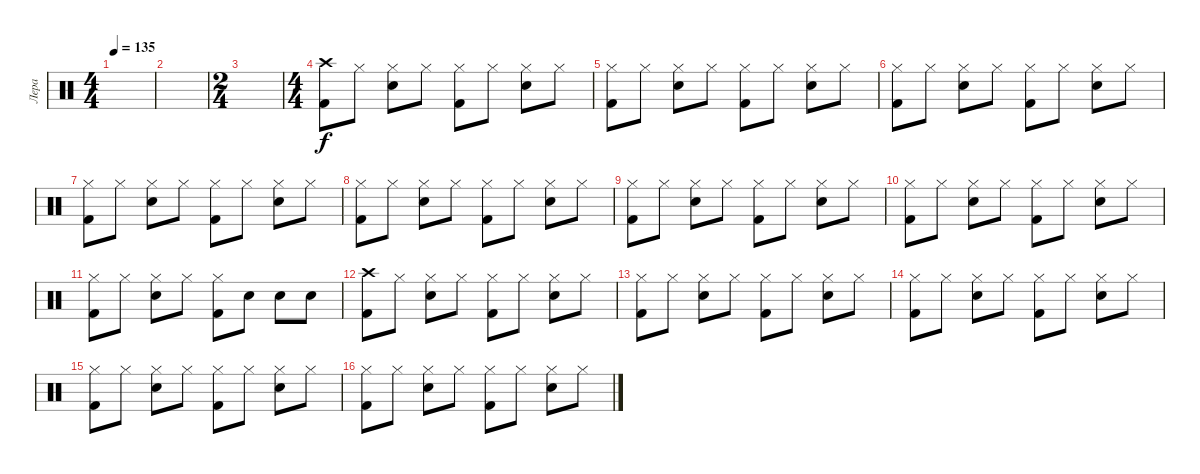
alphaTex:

\track ("Лера" "Лера") {instrument percussion}
\staff {score}
\articulation defaults
\ts (4 4)
\tempo 135
\clef neutral
\ks c
|
|
\ts (2 4)
|
\ts (4 4)
("Crash high (hit)" "Kick (hit) 2").8 "Hi-Hat (closed)".8 ("Hi-Hat (closed)" "Electric Snare (hit)").8 "Hi-Hat (closed)".8 ("Hi-Hat (closed)" "Kick (hit) 2").8 "Hi-Hat (closed)".8 ("Hi-Hat (closed)" "Electric Snare (hit)").8 "Hi-Hat (closed)".8 |
("Hi-Hat (closed)" "Kick (hit) 2").8 "Hi-Hat (closed)".8 ("Hi-Hat (closed)" "Electric Snare (hit)").8 "Hi-Hat (closed)".8 ("Hi-Hat (closed)" "Kick (hit) 2").8 "Hi-Hat (closed)".8 ("Hi-Hat (closed)" "Electric Snare (hit)").8 "Hi-Hat (closed)".8 |
("Hi-Hat (closed)" "Kick (hit) 2").8 "Hi-Hat (closed)".8 ("Hi-Hat (closed)" "Electric Snare (hit)").8 "Hi-Hat (closed)".8 ("Hi-Hat (closed)" "Kick (hit) 2").8 "Hi-Hat (closed)".8 ("Hi-Hat (closed)" "Electric Snare (hit)").8 "Hi-Hat (closed)".8 |
("Hi-Hat (closed)" "Kick (hit) 2").8 "Hi-Hat (closed)".8 ("Hi-Hat (closed)" "Electric Snare (hit)").8 "Hi-Hat (closed)".8 ("Hi-Hat (closed)" "Kick (hit) 2").8 "Hi-Hat (closed)".8 ("Hi-Hat (closed)" "Electric Snare (hit)").8 "Hi-Hat (closed)".8 |
("Hi-Hat (closed)" "Kick (hit) 2").8 "Hi-Hat (closed)".8 ("Hi-Hat (closed)" "Electric Snare (hit)").8 "Hi-Hat (closed)".8 ("Hi-Hat (closed)" "Kick (hit) 2").8 "Hi-Hat (closed)".8 ("Hi-Hat (closed)" "Electric Snare (hit)").8 "Hi-Hat (closed)".8 |
("Hi-Hat (closed)" "Kick (hit) 2").8 "Hi-Hat (closed)".8 ("Hi-Hat (closed)" "Electric Snare (hit)").8 "Hi-Hat (closed)".8 ("Hi-Hat (closed)" "Kick (hit) 2").8 "Hi-Hat (closed)".8 ("Hi-Hat (closed)" "Electric Snare (hit)").8 "Hi-Hat (closed)".8 |
("Hi-Hat (closed)" "Kick (hit) 2").8 "Hi-Hat (closed)".8 ("Hi-Hat (closed)" "Electric Snare (hit)").8 "Hi-Hat (closed)".8 ("Hi-Hat (closed)" "Kick (hit) 2").8 "Hi-Hat (closed)".8 ("Hi-Hat (closed)" "Electric Snare (hit)").8 "Hi-Hat (closed)".8 |
("Hi-Hat (closed)" "Kick (hit) 2").8 "Hi-Hat (closed)".8 ("Hi-Hat (closed)" "Electric Snare (hit)").8 "Hi-Hat (closed)".8 ("Hi-Hat (closed)" "Kick (hit) 2").8 "Electric Snare (hit)".8 "Electric Snare (hit)".8 "Electric Snare (hit)".8 |
("Crash high (hit)" "Kick (hit) 2").8 "Hi-Hat (closed)".8 ("Hi-Hat (closed)" "Electric Snare (hit)").8 "Hi-Hat (closed)".8 ("Hi-Hat (closed)" "Kick (hit) 2").8 "Hi-Hat (closed)".8 ("Hi-Hat (closed)" "Electric Snare (hit)").8 "Hi-Hat (closed)".8 |
("Hi-Hat (closed)" "Kick (hit) 2").8 "Hi-Hat (closed)".8 ("Hi-Hat (closed)" "Electric Snare (hit)").8 "Hi-Hat (closed)".8 ("Hi-Hat (closed)" "Kick (hit) 2").8 "Hi-Hat (closed)".8 ("Hi-Hat (closed)" "Electric Snare (hit)").8 "Hi-Hat (closed)".8 |
("Hi-Hat (closed)" "Kick (hit) 2").8 "Hi-Hat (closed)".8 ("Hi-Hat (closed)" "Electric Snare (hit)").8 "Hi-Hat (closed)".8 ("Hi-Hat (closed)" "Kick (hit) 2").8 "Hi-Hat (closed)".8 ("Hi-Hat (closed)" "Electric Snare (hit)").8 "Hi-Hat (closed)".8 |
("Hi-Hat (closed)" "Kick (hit) 2").8 "Hi-Hat (closed)".8 ("Hi-Hat (closed)" "Electric Snare (hit)").8 "Hi-Hat (closed)".8 ("Hi-Hat (closed)" "Kick (hit) 2").8 "Hi-Hat (closed)".8 ("Hi-Hat (closed)" "Electric Snare (hit)").8 "Hi-Hat (closed)".8 |
("Hi-Hat (closed)" "Kick (hit) 2").8 "Hi-Hat (closed)".8 ("Hi-Hat (closed)" "Electric Snare (hit)").8 "Hi-Hat (closed)".8 ("Hi-Hat (closed)" "Kick (hit) 2").8 "Hi-Hat (closed)".8 ("Hi-Hat (closed)" "Electric Snare (hit)").8 "Hi-Hat (closed)".8
